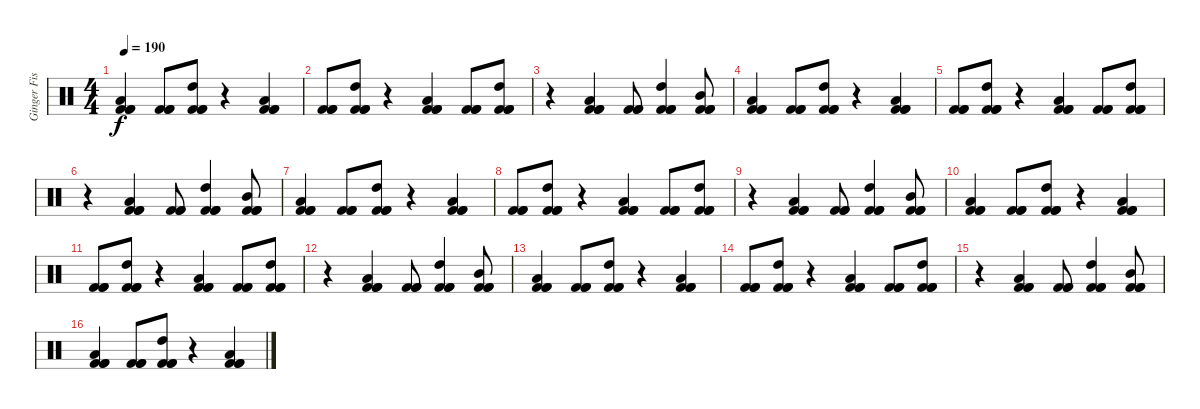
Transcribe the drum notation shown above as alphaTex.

\track ("Ginger Fish" "Ginger Fis") {instrument percussion}
\staff {score}
\articulation defaults
\ts (4 4)
\tempo 190
\clef neutral
\ks c
("Low Tom (hit)" "Kick (hit) 2" "Kick (hit) 2" "Kick (hit) 2").4{dy f} ("Kick (hit) 2" "Kick (hit) 2" "Kick (hit) 2").8 ("High Tom (hit)" "Kick (hit) 2" "Kick (hit) 2" "Kick (hit) 2").8 r.4 ("Low Tom (hit)" "Kick (hit) 2" "Kick (hit) 2" "Kick (hit) 2").4 |
("Kick (hit) 2" "Kick (hit) 2" "Kick (hit) 2").8 ("High Tom (hit)" "Kick (hit) 2" "Kick (hit) 2" "Kick (hit) 2").8 r.4 ("Low Tom (hit)" "Kick (hit) 2" "Kick (hit) 2" "Kick (hit) 2").4 ("Kick (hit) 2" "Kick (hit) 2" "Kick (hit) 2").8 ("High Tom (hit)" "Kick (hit) 2" "Kick (hit) 2" "Kick (hit) 2").8 |
r.4 ("Low Tom (hit)" "Kick (hit) 2" "Kick (hit) 2" "Kick (hit) 2").4 ("Kick (hit) 2" "Kick (hit) 2" "Kick (hit) 2").8 ("High Tom (hit)" "Kick (hit) 2" "Kick (hit) 2" "Kick (hit) 2").4 ("Mid Tom (hit)" "Kick (hit) 2" "Kick (hit) 2" "Kick (hit) 2").8 |
("Low Tom (hit)" "Kick (hit) 2" "Kick (hit) 2" "Kick (hit) 2").4 ("Kick (hit) 2" "Kick (hit) 2" "Kick (hit) 2").8 ("High Tom (hit)" "Kick (hit) 2" "Kick (hit) 2" "Kick (hit) 2").8 r.4 ("Low Tom (hit)" "Kick (hit) 2" "Kick (hit) 2" "Kick (hit) 2").4 |
("Kick (hit) 2" "Kick (hit) 2" "Kick (hit) 2").8 ("High Tom (hit)" "Kick (hit) 2" "Kick (hit) 2" "Kick (hit) 2").8 r.4 ("Low Tom (hit)" "Kick (hit) 2" "Kick (hit) 2" "Kick (hit) 2").4 ("Kick (hit) 2" "Kick (hit) 2" "Kick (hit) 2").8 ("High Tom (hit)" "Kick (hit) 2" "Kick (hit) 2" "Kick (hit) 2").8 |
r.4 ("Low Tom (hit)" "Kick (hit) 2" "Kick (hit) 2" "Kick (hit) 2").4 ("Kick (hit) 2" "Kick (hit) 2" "Kick (hit) 2").8 ("High Tom (hit)" "Kick (hit) 2" "Kick (hit) 2" "Kick (hit) 2").4 ("Mid Tom (hit)" "Kick (hit) 2" "Kick (hit) 2" "Kick (hit) 2").8 |
("Low Tom (hit)" "Kick (hit) 2" "Kick (hit) 2" "Kick (hit) 2").4 ("Kick (hit) 2" "Kick (hit) 2" "Kick (hit) 2").8 ("High Tom (hit)" "Kick (hit) 2" "Kick (hit) 2" "Kick (hit) 2").8 r.4 ("Low Tom (hit)" "Kick (hit) 2" "Kick (hit) 2" "Kick (hit) 2").4 |
("Kick (hit) 2" "Kick (hit) 2" "Kick (hit) 2").8 ("High Tom (hit)" "Kick (hit) 2" "Kick (hit) 2" "Kick (hit) 2").8 r.4 ("Low Tom (hit)" "Kick (hit) 2" "Kick (hit) 2" "Kick (hit) 2").4 ("Kick (hit) 2" "Kick (hit) 2" "Kick (hit) 2").8 ("High Tom (hit)" "Kick (hit) 2" "Kick (hit) 2" "Kick (hit) 2").8 |
r.4 ("Low Tom (hit)" "Kick (hit) 2" "Kick (hit) 2" "Kick (hit) 2").4 ("Kick (hit) 2" "Kick (hit) 2" "Kick (hit) 2").8 ("High Tom (hit)" "Kick (hit) 2" "Kick (hit) 2" "Kick (hit) 2").4 ("Mid Tom (hit)" "Kick (hit) 2" "Kick (hit) 2" "Kick (hit) 2").8 |
("Low Tom (hit)" "Kick (hit) 2" "Kick (hit) 2" "Kick (hit) 2").4 ("Kick (hit) 2" "Kick (hit) 2" "Kick (hit) 2").8 ("High Tom (hit)" "Kick (hit) 2" "Kick (hit) 2" "Kick (hit) 2").8 r.4 ("Low Tom (hit)" "Kick (hit) 2" "Kick (hit) 2" "Kick (hit) 2").4 |
("Kick (hit) 2" "Kick (hit) 2" "Kick (hit) 2").8 ("High Tom (hit)" "Kick (hit) 2" "Kick (hit) 2" "Kick (hit) 2").8 r.4 ("Low Tom (hit)" "Kick (hit) 2" "Kick (hit) 2" "Kick (hit) 2").4 ("Kick (hit) 2" "Kick (hit) 2" "Kick (hit) 2").8 ("High Tom (hit)" "Kick (hit) 2" "Kick (hit) 2" "Kick (hit) 2").8 |
r.4 ("Low Tom (hit)" "Kick (hit) 2" "Kick (hit) 2" "Kick (hit) 2").4 ("Kick (hit) 2" "Kick (hit) 2" "Kick (hit) 2").8 ("High Tom (hit)" "Kick (hit) 2" "Kick (hit) 2" "Kick (hit) 2").4 ("Mid Tom (hit)" "Kick (hit) 2" "Kick (hit) 2" "Kick (hit) 2").8 |
("Low Tom (hit)" "Kick (hit) 2" "Kick (hit) 2" "Kick (hit) 2").4 ("Kick (hit) 2" "Kick (hit) 2" "Kick (hit) 2").8 ("High Tom (hit)" "Kick (hit) 2" "Kick (hit) 2" "Kick (hit) 2").8 r.4 ("Low Tom (hit)" "Kick (hit) 2" "Kick (hit) 2" "Kick (hit) 2").4 |
("Kick (hit) 2" "Kick (hit) 2" "Kick (hit) 2").8 ("High Tom (hit)" "Kick (hit) 2" "Kick (hit) 2" "Kick (hit) 2").8 r.4 ("Low Tom (hit)" "Kick (hit) 2" "Kick (hit) 2" "Kick (hit) 2").4 ("Kick (hit) 2" "Kick (hit) 2" "Kick (hit) 2").8 ("High Tom (hit)" "Kick (hit) 2" "Kick (hit) 2" "Kick (hit) 2").8 |
r.4 ("Low Tom (hit)" "Kick (hit) 2" "Kick (hit) 2" "Kick (hit) 2").4 ("Kick (hit) 2" "Kick (hit) 2" "Kick (hit) 2").8 ("High Tom (hit)" "Kick (hit) 2" "Kick (hit) 2" "Kick (hit) 2").4 ("Mid Tom (hit)" "Kick (hit) 2" "Kick (hit) 2" "Kick (hit) 2").8 |
("Low Tom (hit)" "Kick (hit) 2" "Kick (hit) 2" "Kick (hit) 2").4 ("Kick (hit) 2" "Kick (hit) 2" "Kick (hit) 2").8 ("High Tom (hit)" "Kick (hit) 2" "Kick (hit) 2" "Kick (hit) 2").8 r.4 ("Low Tom (hit)" "Kick (hit) 2" "Kick (hit) 2" "Kick (hit) 2").4
